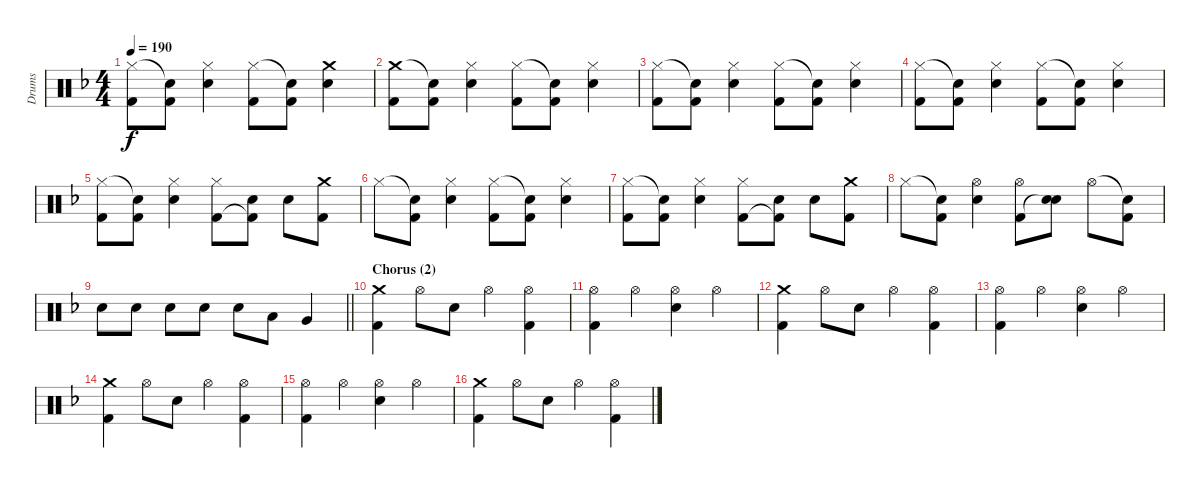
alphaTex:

\track ("Drums" "Drums") {instrument percussion}
\staff {score}
\articulation defaults
\ts (4 4)
\tempo 190
\clef neutral
\ks dminor
("Hi-Hat (closed)" "Kick (hit) 2").8{dy f} ("Snare (hit)"{t} "Kick (hit) 2").8 ("Hi-Hat (closed)" "Electric Snare (hit)").4 ("Hi-Hat (closed)" "Kick (hit) 2").8 ("Snare (hit)"{t} "Kick (hit) 2").8 ("Crash medium (hit)" "Electric Snare (hit)").4 |
("Crash medium (hit)" "Kick (hit) 2").8 ("Snare (hit)"{t} "Kick (hit) 2").8 ("Hi-Hat (closed)" "Electric Snare (hit)").4 ("Hi-Hat (closed)" "Kick (hit) 2").8 ("Snare (hit)"{t} "Kick (hit) 2").8 ("Hi-Hat (closed)" "Electric Snare (hit)").4 |
("Hi-Hat (closed)" "Kick (hit) 2").8 ("Snare (hit)"{t} "Kick (hit) 2").8 ("Hi-Hat (closed)" "Electric Snare (hit)").4 ("Hi-Hat (closed)" "Kick (hit) 2").8 ("Snare (hit)"{t} "Kick (hit) 2").8 ("Hi-Hat (closed)" "Electric Snare (hit)").4 |
("Hi-Hat (closed)" "Kick (hit) 2").8 ("Snare (hit)"{t} "Kick (hit) 2").8 ("Hi-Hat (closed)" "Electric Snare (hit)").4 ("Hi-Hat (closed)" "Kick (hit) 2").8 ("Snare (hit)"{t} "Kick (hit) 2").8 ("Hi-Hat (closed)" "Electric Snare (hit)").4 |
("Hi-Hat (closed)" "Kick (hit) 2").8 ("Snare (hit)"{t} "Kick (hit) 2").8 ("Hi-Hat (closed)" "Electric Snare (hit)").4 ("Hi-Hat (closed)" "Kick (hit) 2").8 ("Electric Snare (hit)" "Kick (hit) 2"{t}).8 "Electric Snare (hit)".8 ("Crash medium (hit)" "Kick (hit) 2").8 |
"Hi-Hat (closed)".8 ("Snare (hit)"{t} "Kick (hit) 2").8 ("Hi-Hat (closed)" "Electric Snare (hit)").4 ("Hi-Hat (closed)" "Kick (hit) 2").8 ("Snare (hit)"{t} "Kick (hit) 2").8 ("Hi-Hat (closed)" "Electric Snare (hit)").4 |
("Hi-Hat (closed)" "Kick (hit) 2").8 ("Snare (hit)"{t} "Kick (hit) 2").8 ("Hi-Hat (closed)" "Electric Snare (hit)").4 ("Hi-Hat (closed)" "Kick (hit) 2").8 ("Electric Snare (hit)" "Kick (hit) 2"{t}).8 "Electric Snare (hit)".8 ("Crash medium (hit)" "Kick (hit) 2").8 |
"Hi-Hat (closed)".8 ("Snare (hit)"{t} "Kick (hit) 2").8 ("Hi-Hat (open)" "Electric Snare (hit)").4 ("Hi-Hat (open)" "Kick (hit) 2").8 ("Electric Snare (hit)" "Snare (hit)"{t}).8 "Hi-Hat (open)".8 ("Snare (hit)"{t} "Kick (hit) 2").8 |
\barLineRight lightlight "Electric Snare (hit)".8 "Electric Snare (hit)".8 "Electric Snare (hit)".8 "Electric Snare (hit)".8 "Electric Snare (hit)".8 "Low Tom (hit)".8 "Very Low Tom (hit)".4
|
\section ("" "Chorus (2)")
("Crash medium (hit)" "Kick (hit) 2").4 "Hi-Hat (open)".8 "Electric Snare (hit)".8 "Hi-Hat (open)".4 ("Hi-Hat (open)" "Kick (hit) 2").4 |
("Hi-Hat (open)" "Kick (hit) 2").4 "Hi-Hat (open)".4 ("Hi-Hat (open)" "Electric Snare (hit)").4 "Hi-Hat (open)".4 |
("Crash medium (hit)" "Kick (hit) 2").4 "Hi-Hat (open)".8 "Electric Snare (hit)".8 "Hi-Hat (open)".4 ("Hi-Hat (open)" "Kick (hit) 2").4 |
("Hi-Hat (open)" "Kick (hit) 2").4 "Hi-Hat (open)".4 ("Hi-Hat (open)" "Electric Snare (hit)").4 "Hi-Hat (open)".4 |
("Crash medium (hit)" "Kick (hit) 2").4 "Hi-Hat (open)".8 "Electric Snare (hit)".8 "Hi-Hat (open)".4 ("Hi-Hat (open)" "Kick (hit) 2").4 |
("Hi-Hat (open)" "Kick (hit) 2").4 "Hi-Hat (open)".4 ("Hi-Hat (open)" "Electric Snare (hit)").4 "Hi-Hat (open)".4 |
("Crash medium (hit)" "Kick (hit) 2").4 "Hi-Hat (open)".8 "Electric Snare (hit)".8 "Hi-Hat (open)".4 ("Hi-Hat (open)" "Kick (hit) 2").4
